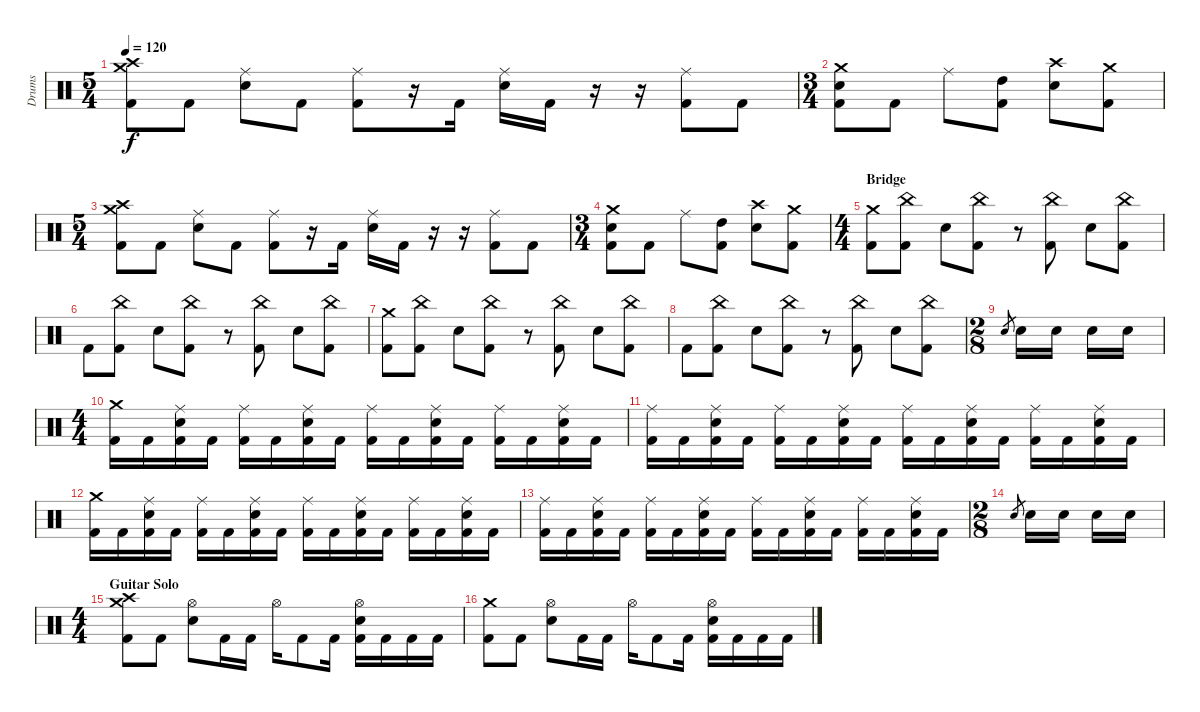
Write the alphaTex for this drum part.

\track ("Drums" "Drums") {instrument percussion}
\staff {score}
\articulation defaults
\ts (5 4)
\tempo 120
\clef neutral
\ks c
("Crash high (hit)" "Crash medium (hit)" "Kick (hit) 2").8{dy f} "Kick (hit) 2".8 ("Ride (middle)" "Electric Snare (hit)").8 "Kick (hit) 2".8 ("Ride (middle)" "Kick (hit) 2").8 r.16 "Kick (hit) 2".16 ("Ride (middle)" "Electric Snare (hit)").16 "Kick (hit) 2".16 r.16 r.16 ("Ride (middle)" "Kick (hit) 2").8 "Kick (hit) 2".8 |
\ts (3 4)
("Crash medium (hit)" "Electric Snare (hit)" "Kick (hit) 2").8 "Kick (hit) 2".8 "Ride (middle)".8 ("High Tom (hit)" "Kick (hit) 2").8 ("Crash high (hit)" "Electric Snare (hit)").8 ("Crash medium (hit)" "Kick (hit) 2").8 |
\ts (5 4)
("Crash high (hit)" "Crash medium (hit)" "Kick (hit) 2").8 "Kick (hit) 2".8 ("Ride (middle)" "Electric Snare (hit)").8 "Kick (hit) 2".8 ("Ride (middle)" "Kick (hit) 2").8 r.16 "Kick (hit) 2".16 ("Ride (middle)" "Electric Snare (hit)").16 "Kick (hit) 2".16 r.16 r.16 ("Ride (middle)" "Kick (hit) 2").8 "Kick (hit) 2".8 |
\ts (3 4)
("Crash medium (hit)" "Electric Snare (hit)" "Kick (hit) 2").8 "Kick (hit) 2".8 "Ride (middle)".8 ("High Tom (hit)" "Kick (hit) 2").8 ("Crash high (hit)" "Electric Snare (hit)").8 ("Crash medium (hit)" "Kick (hit) 2").8 |
\ts (4 4)
\section ("" "Bridge")
("Crash medium (hit)" "Kick (hit) 2").8 ("China (hit)" "Kick (hit) 2").8 "Electric Snare (hit)".8 ("China (hit)" "Kick (hit) 2").8 r.8 ("China (hit)" "Kick (hit) 2").8 "Electric Snare (hit)".8 ("China (hit)" "Kick (hit) 2").8 |
"Kick (hit) 2".8 ("China (hit)" "Kick (hit) 2").8 "Electric Snare (hit)".8 ("China (hit)" "Kick (hit) 2").8 r.8 ("China (hit)" "Kick (hit) 2").8 "Electric Snare (hit)".8 ("China (hit)" "Kick (hit) 2").8 |
("Crash medium (hit)" "Kick (hit) 2").8 ("China (hit)" "Kick (hit) 2").8 "Electric Snare (hit)".8 ("China (hit)" "Kick (hit) 2").8 r.8 ("China (hit)" "Kick (hit) 2").8 "Electric Snare (hit)".8 ("China (hit)" "Kick (hit) 2").8 |
"Kick (hit) 2".8 ("China (hit)" "Kick (hit) 2").8 "Electric Snare (hit)".8 ("China (hit)" "Kick (hit) 2").8 r.8 ("China (hit)" "Kick (hit) 2").8 "Electric Snare (hit)".8 ("China (hit)" "Kick (hit) 2").8 |
\ts (2 8)
"Electric Snare (hit)".8{gr} "Electric Snare (hit)".16 "Electric Snare (hit)".16 "Electric Snare (hit)".16 "Electric Snare (hit)".16 |
\ts (4 4)
("Crash medium (hit)" "Kick (hit) 2").16 "Kick (hit) 2".16 ("Ride (middle)" "Electric Snare (hit)" "Kick (hit) 2").16 "Kick (hit) 2".16 ("Ride (middle)" "Kick (hit) 2").16 "Kick (hit) 2".16 ("Ride (middle)" "Electric Snare (hit)" "Kick (hit) 2").16 "Kick (hit) 2".16 ("Ride (middle)" "Kick (hit) 2").16 "Kick (hit) 2".16 ("Ride (middle)" "Electric Snare (hit)" "Kick (hit) 2").16 "Kick (hit) 2".16 ("Ride (middle)" "Kick (hit) 2").16 "Kick (hit) 2".16 ("Ride (middle)" "Electric Snare (hit)" "Kick (hit) 2").16 "Kick (hit) 2".16 |
("Ride (middle)" "Kick (hit) 2").16 "Kick (hit) 2".16 ("Ride (middle)" "Electric Snare (hit)" "Kick (hit) 2").16 "Kick (hit) 2".16 ("Ride (middle)" "Kick (hit) 2").16 "Kick (hit) 2".16 ("Ride (middle)" "Electric Snare (hit)" "Kick (hit) 2").16 "Kick (hit) 2".16 ("Ride (middle)" "Kick (hit) 2").16 "Kick (hit) 2".16 ("Ride (middle)" "Electric Snare (hit)" "Kick (hit) 2").16 "Kick (hit) 2".16 ("Ride (middle)" "Kick (hit) 2").16 "Kick (hit) 2".16 ("Ride (middle)" "Electric Snare (hit)" "Kick (hit) 2").16 "Kick (hit) 2".16 |
("Crash medium (hit)" "Kick (hit) 2").16 "Kick (hit) 2".16 ("Ride (middle)" "Electric Snare (hit)" "Kick (hit) 2").16 "Kick (hit) 2".16 ("Ride (middle)" "Kick (hit) 2").16 "Kick (hit) 2".16 ("Ride (middle)" "Electric Snare (hit)" "Kick (hit) 2").16 "Kick (hit) 2".16 ("Ride (middle)" "Kick (hit) 2").16 "Kick (hit) 2".16 ("Ride (middle)" "Electric Snare (hit)" "Kick (hit) 2").16 "Kick (hit) 2".16 ("Ride (middle)" "Kick (hit) 2").16 "Kick (hit) 2".16 ("Ride (middle)" "Electric Snare (hit)" "Kick (hit) 2").16 "Kick (hit) 2".16 |
("Ride (middle)" "Kick (hit) 2").16 "Kick (hit) 2".16 ("Ride (middle)" "Electric Snare (hit)" "Kick (hit) 2").16 "Kick (hit) 2".16 ("Ride (middle)" "Kick (hit) 2").16 "Kick (hit) 2".16 ("Ride (middle)" "Electric Snare (hit)" "Kick (hit) 2").16 "Kick (hit) 2".16 ("Ride (middle)" "Kick (hit) 2").16 "Kick (hit) 2".16 ("Ride (middle)" "Electric Snare (hit)" "Kick (hit) 2").16 "Kick (hit) 2".16 ("Ride (middle)" "Kick (hit) 2").16 "Kick (hit) 2".16 ("Ride (middle)" "Electric Snare (hit)" "Kick (hit) 2").16 "Kick (hit) 2".16 |
\ts (2 8)
"Electric Snare (hit)".8{gr} "Electric Snare (hit)".16 "Electric Snare (hit)".16 "Electric Snare (hit)".16 "Electric Snare (hit)".16 |
\ts (4 4)
\section ("" "Guitar Solo")
("Crash medium (hit)" "Crash high (hit)" "Kick (hit) 2").8 "Kick (hit) 2".8 ("Hi-Hat (open)" "Electric Snare (hit)").8 "Kick (hit) 2".16 "Kick (hit) 2".16 "Hi-Hat (open)".16 "Kick (hit) 2".8 "Kick (hit) 2".16 ("Hi-Hat (open)" "Electric Snare (hit)" "Kick (hit) 2").16 "Kick (hit) 2".16 "Kick (hit) 2".16 "Kick (hit) 2".16 |
("Crash medium (hit)" "Kick (hit) 2").8 "Kick (hit) 2".8 ("Hi-Hat (open)" "Electric Snare (hit)").8 "Kick (hit) 2".16 "Kick (hit) 2".16 "Hi-Hat (open)".16 "Kick (hit) 2".8 "Kick (hit) 2".16 ("Hi-Hat (open)" "Electric Snare (hit)" "Kick (hit) 2").16 "Kick (hit) 2".16 "Kick (hit) 2".16 "Kick (hit) 2".16
